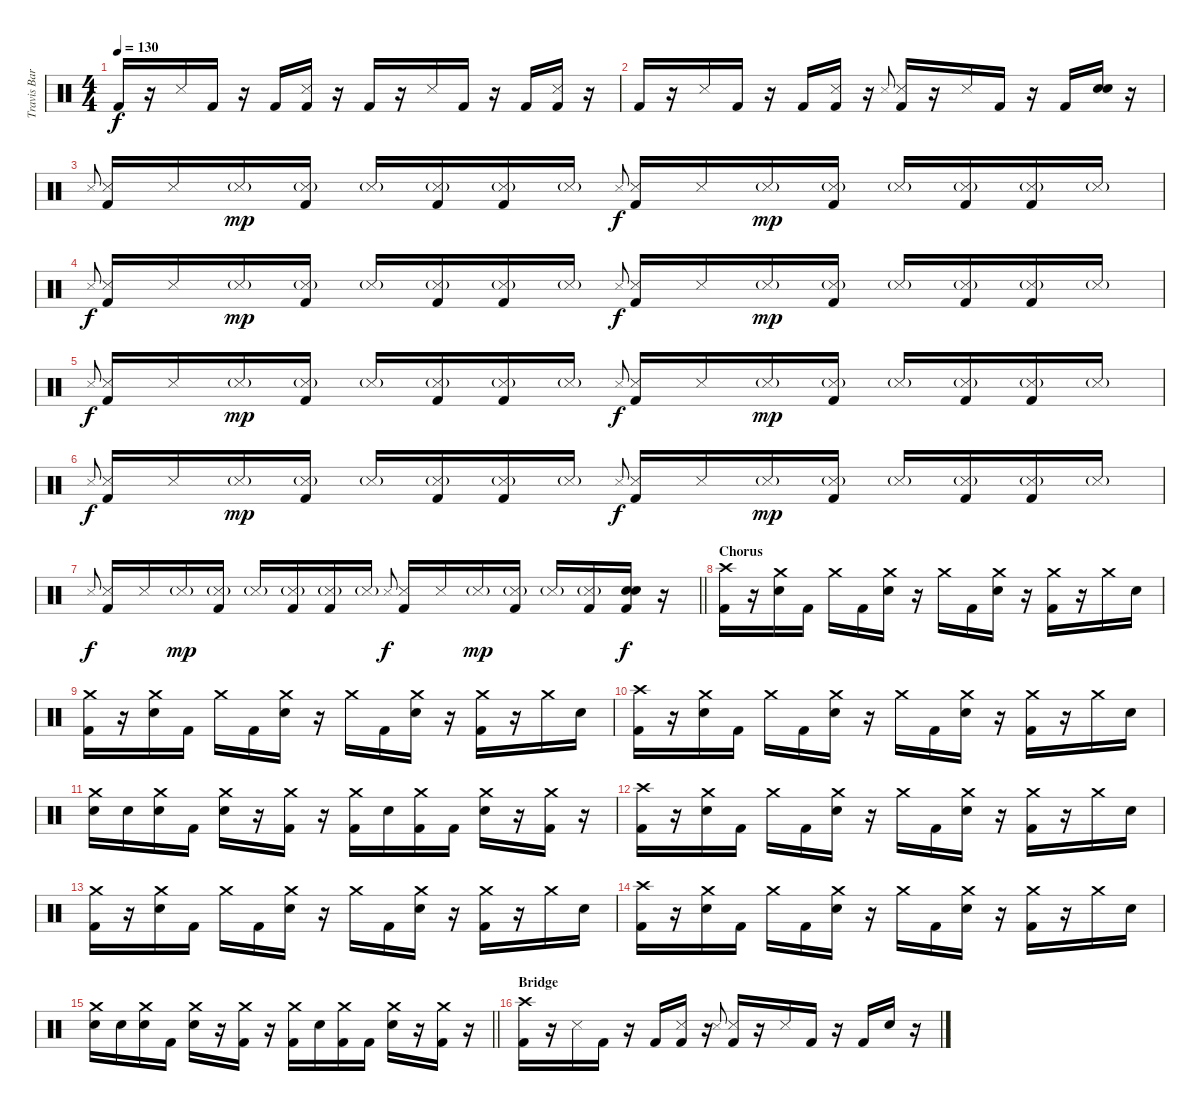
\track ("Travis Barker [Drums]" "Travis Bar") {instrument percussion}
\staff {score}
\articulation defaults
\ts (4 4)
\tempo 130
\clef neutral
\ks c "Kick (hit) 2".16{dy f}
r.16 "Snare (side stick) 3".16 "Kick (hit) 2".16 r.16 "Kick (hit) 2".16 ("Snare (side stick) 3" "Kick (hit) 2").16 r.16 "Kick (hit) 2".16 r.16 "Snare (side stick) 3".16 "Kick (hit) 2".16 r.16 "Kick (hit) 2".16 ("Snare (side stick) 3" "Kick (hit) 2").16 r.16 |
"Kick (hit) 2".16 r.16 "Snare (side stick) 3".16 "Kick (hit) 2".16 r.16 "Kick (hit) 2".16 ("Snare (side stick) 3" "Kick (hit) 2").16 r.16 "Snare (side stick) 3"{x}.8{gr onbeat} ("Snare (side stick) 3" "Kick (hit) 2").16 r.16 "Snare (side stick) 3".16 "Kick (hit) 2".16 r.16 "Kick (hit) 2".16 ("Electric Snare (hit)" "Electric Snare (hit)").16 r.16 |
"Snare (side stick) 3".8{gr onbeat} ("Snare (side stick) 3" "Kick (hit) 2").16 "Snare (side stick) 3".16 "Snare (side stick) 3"{g}.16{dy mp} ("Snare (side stick) 3"{g} "Kick (hit) 2").16 "Snare (side stick) 3"{g}.16 ("Snare (side stick) 3"{g} "Kick (hit) 2").16 ("Snare (side stick) 3"{g} "Kick (hit) 2").16 "Snare (side stick) 3"{g}.16 "Snare (side stick) 3".8{gr onbeat dy f} ("Snare (side stick) 3" "Kick (hit) 2").16 "Snare (side stick) 3".16 "Snare (side stick) 3"{g}.16{dy mp} ("Snare (side stick) 3"{g} "Kick (hit) 2").16 "Snare (side stick) 3"{g}.16 ("Snare (side stick) 3"{g} "Kick (hit) 2").16 ("Snare (side stick) 3"{g} "Kick (hit) 2").16 "Snare (side stick) 3"{g}.16 |
"Snare (side stick) 3".8{gr onbeat dy f} ("Snare (side stick) 3" "Kick (hit) 2").16 "Snare (side stick) 3".16 "Snare (side stick) 3"{g}.16{dy mp} ("Snare (side stick) 3"{g} "Kick (hit) 2").16 "Snare (side stick) 3"{g}.16 ("Snare (side stick) 3"{g} "Kick (hit) 2").16 ("Snare (side stick) 3"{g} "Kick (hit) 2").16 "Snare (side stick) 3"{g}.16 "Snare (side stick) 3".8{gr onbeat dy f} ("Snare (side stick) 3" "Kick (hit) 2").16 "Snare (side stick) 3".16 "Snare (side stick) 3"{g}.16{dy mp} ("Snare (side stick) 3"{g} "Kick (hit) 2").16 "Snare (side stick) 3"{g}.16 ("Snare (side stick) 3"{g} "Kick (hit) 2").16 ("Snare (side stick) 3"{g} "Kick (hit) 2").16 "Snare (side stick) 3"{g}.16 |
"Snare (side stick) 3".8{gr onbeat dy f} ("Snare (side stick) 3" "Kick (hit) 2").16 "Snare (side stick) 3".16 "Snare (side stick) 3"{g}.16{dy mp} ("Snare (side stick) 3"{g} "Kick (hit) 2").16 "Snare (side stick) 3"{g}.16 ("Snare (side stick) 3"{g} "Kick (hit) 2").16 ("Snare (side stick) 3"{g} "Kick (hit) 2").16 "Snare (side stick) 3"{g}.16 "Snare (side stick) 3".8{gr onbeat dy f} ("Snare (side stick) 3" "Kick (hit) 2").16 "Snare (side stick) 3".16 "Snare (side stick) 3"{g}.16{dy mp} ("Snare (side stick) 3"{g} "Kick (hit) 2").16 "Snare (side stick) 3"{g}.16 ("Snare (side stick) 3"{g} "Kick (hit) 2").16 ("Snare (side stick) 3"{g} "Kick (hit) 2").16 "Snare (side stick) 3"{g}.16 |
"Snare (side stick) 3".8{gr onbeat dy f} ("Snare (side stick) 3" "Kick (hit) 2").16 "Snare (side stick) 3".16 "Snare (side stick) 3"{g}.16{dy mp} ("Snare (side stick) 3"{g} "Kick (hit) 2").16 "Snare (side stick) 3"{g}.16 ("Snare (side stick) 3"{g} "Kick (hit) 2").16 ("Snare (side stick) 3"{g} "Kick (hit) 2").16 "Snare (side stick) 3"{g}.16 "Snare (side stick) 3".8{gr onbeat dy f} ("Snare (side stick) 3" "Kick (hit) 2").16 "Snare (side stick) 3".16 "Snare (side stick) 3"{g}.16{dy mp} ("Snare (side stick) 3"{g} "Kick (hit) 2").16 "Snare (side stick) 3"{g}.16 ("Snare (side stick) 3"{g} "Kick (hit) 2").16 ("Snare (side stick) 3"{g} "Kick (hit) 2").16 "Snare (side stick) 3"{g}.16 |
\barLineRight lightlight "Snare (side stick) 3".8{gr onbeat dy f}
("Snare (side stick) 3" "Kick (hit) 2").16 "Snare (side stick) 3".16 "Snare (side stick) 3"{g}.16{dy mp} ("Snare (side stick) 3"{g} "Kick (hit) 2").16 "Snare (side stick) 3"{g}.16 ("Snare (side stick) 3"{g} "Kick (hit) 2").16 ("Snare (side stick) 3"{g} "Kick (hit) 2").16 "Snare (side stick) 3"{g}.16 "Snare (side stick) 3".8{gr onbeat dy f} ("Snare (side stick) 3" "Kick (hit) 2").16 "Snare (side stick) 3".16 "Snare (side stick) 3"{g}.16{dy mp} ("Snare (side stick) 3"{g} "Kick (hit) 2").16 "Snare (side stick) 3"{g}.16 ("Snare (side stick) 3"{g} "Kick (hit) 2").16 ("Electric Snare (hit)" "Electric Snare (hit)" "Kick (hit) 2").16{dy f} r.16 |
\section ("" "Chorus")
("Crash high (hit)" "Kick (hit) 2").16 r.16 ("Crash medium (hit)" "Electric Snare (hit)").16 "Kick (hit) 2".16 "Crash medium (hit)".16 "Kick (hit) 2".16 ("Crash medium (hit)" "Electric Snare (hit)").16 r.16 "Crash medium (hit)".16 "Kick (hit) 2".16 ("Crash medium (hit)" "Electric Snare (hit)").16 r.16 ("Crash medium (hit)" "Kick (hit) 2").16 r.16 "Crash medium (hit)".16 "Electric Snare (hit)".16 |
("Crash medium (hit)" "Kick (hit) 2").16 r.16 ("Crash medium (hit)" "Electric Snare (hit)").16 "Kick (hit) 2".16 "Crash medium (hit)".16 "Kick (hit) 2".16 ("Crash medium (hit)" "Electric Snare (hit)").16 r.16 "Crash medium (hit)".16 "Kick (hit) 2".16 ("Crash medium (hit)" "Electric Snare (hit)").16 r.16 ("Crash medium (hit)" "Kick (hit) 2").16 r.16 "Crash medium (hit)".16 "Electric Snare (hit)".16 |
("Crash high (hit)" "Kick (hit) 2").16 r.16 ("Crash medium (hit)" "Electric Snare (hit)").16 "Kick (hit) 2".16 "Crash medium (hit)".16 "Kick (hit) 2".16 ("Crash medium (hit)" "Electric Snare (hit)").16 r.16 "Crash medium (hit)".16 "Kick (hit) 2".16 ("Crash medium (hit)" "Electric Snare (hit)").16 r.16 ("Crash medium (hit)" "Kick (hit) 2").16 r.16 "Crash medium (hit)".16 "Electric Snare (hit)".16 |
("Crash medium (hit)" "Electric Snare (hit)").16 "Electric Snare (hit)".16 ("Crash medium (hit)" "Electric Snare (hit)").16 "Kick (hit) 2".16 ("Crash medium (hit)" "Electric Snare (hit)").16 r.16 ("Crash medium (hit)" "Kick (hit) 2").16 r.16 ("Crash medium (hit)" "Kick (hit) 2").16 "Electric Snare (hit)".16 ("Crash medium (hit)" "Kick (hit) 2").16 "Kick (hit) 2".16 ("Crash medium (hit)" "Electric Snare (hit)").16 r.16 ("Crash medium (hit)" "Kick (hit) 2").16 r.16 |
("Crash high (hit)" "Kick (hit) 2").16 r.16 ("Crash medium (hit)" "Electric Snare (hit)").16 "Kick (hit) 2".16 "Crash medium (hit)".16 "Kick (hit) 2".16 ("Crash medium (hit)" "Electric Snare (hit)").16 r.16 "Crash medium (hit)".16 "Kick (hit) 2".16 ("Crash medium (hit)" "Electric Snare (hit)").16 r.16 ("Crash medium (hit)" "Kick (hit) 2").16 r.16 "Crash medium (hit)".16 "Electric Snare (hit)".16 |
("Crash medium (hit)" "Kick (hit) 2").16 r.16 ("Crash medium (hit)" "Electric Snare (hit)").16 "Kick (hit) 2".16 "Crash medium (hit)".16 "Kick (hit) 2".16 ("Crash medium (hit)" "Electric Snare (hit)").16 r.16 "Crash medium (hit)".16 "Kick (hit) 2".16 ("Crash medium (hit)" "Electric Snare (hit)").16 r.16 ("Crash medium (hit)" "Kick (hit) 2").16 r.16 "Crash medium (hit)".16 "Electric Snare (hit)".16 |
("Crash high (hit)" "Kick (hit) 2").16 r.16 ("Crash medium (hit)" "Electric Snare (hit)").16 "Kick (hit) 2".16 "Crash medium (hit)".16 "Kick (hit) 2".16 ("Crash medium (hit)" "Electric Snare (hit)").16 r.16 "Crash medium (hit)".16 "Kick (hit) 2".16 ("Crash medium (hit)" "Electric Snare (hit)").16 r.16 ("Crash medium (hit)" "Kick (hit) 2").16 r.16 "Crash medium (hit)".16 "Electric Snare (hit)".16 |
\barLineRight lightlight
("Crash medium (hit)" "Electric Snare (hit)").16 "Electric Snare (hit)".16 ("Crash medium (hit)" "Electric Snare (hit)").16 "Kick (hit) 2".16 ("Crash medium (hit)" "Electric Snare (hit)").16 r.16 ("Crash medium (hit)" "Kick (hit) 2").16 r.16 ("Crash medium (hit)" "Kick (hit) 2").16 "Electric Snare (hit)".16 ("Crash medium (hit)" "Kick (hit) 2").16 "Kick (hit) 2".16 ("Crash medium (hit)" "Electric Snare (hit)").16 r.16 ("Crash medium (hit)" "Kick (hit) 2").16 r.16 |
\section ("" "Bridge")
("Crash high (hit)" "Kick (hit) 2").16 r.16 "Snare (side stick) 3".16 "Kick (hit) 2".16 r.16 "Kick (hit) 2".16 ("Snare (side stick) 3" "Kick (hit) 2").16 r.16 "Snare (side stick) 3"{x}.8{gr onbeat} ("Snare (side stick) 3" "Kick (hit) 2").16 r.16 "Snare (side stick) 3".16 "Kick (hit) 2".16 r.16 "Kick (hit) 2".16 "Electric Snare (hit)".16 r.16
